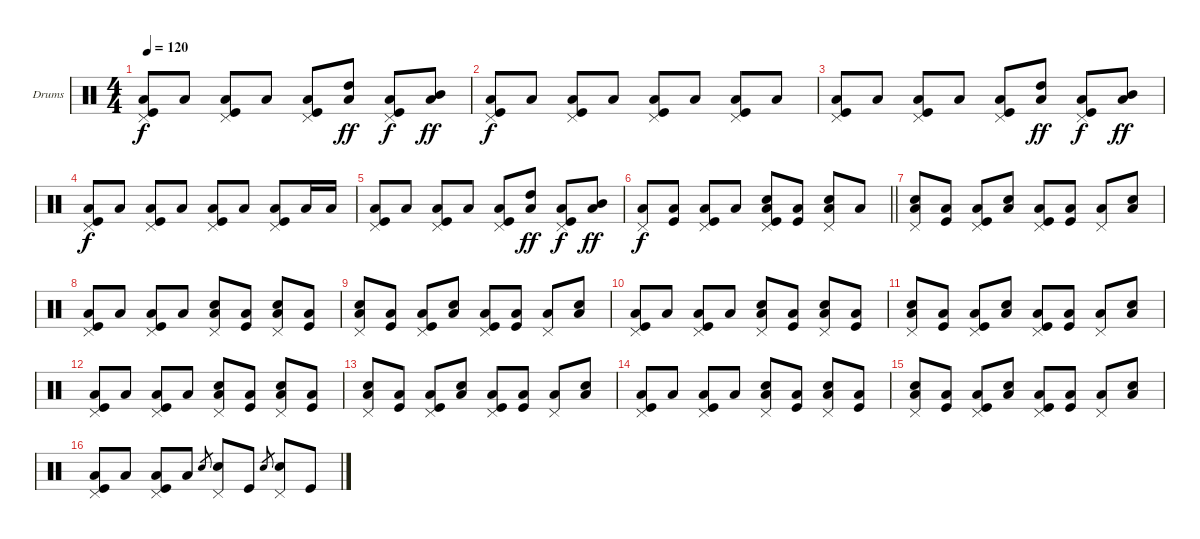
\bracketExtendMode groupsimilarinstruments
\firstSystemTrackNameOrientation horizontal
\otherSystemsTrackNameOrientation horizontal
\track ("Drums" "Drums") {instrument percussion}
\staff {score}
\articulation defaults
\ts (4 4)
\tempo 120
\clef neutral
\ks c
("Kick (hit)" "Pedal Hi-Hat (hit)" "Low Tom (hit)").8{dy f} "Low Tom (hit)".8 ("Kick (hit)" "Pedal Hi-Hat (hit)" "Low Tom (hit)").8 "Low Tom (hit)".8 ("Kick (hit)" "Pedal Hi-Hat (hit)" "Low Tom (hit)").8 ("Low Tom (hit)" "High Tom (hit)").8{dy ff} ("Kick (hit)" "Pedal Hi-Hat (hit)" "Low Tom (hit)").8{dy f} ("Low Tom (hit)" "Mid Tom (hit)").8{dy ff} |
("Kick (hit)" "Pedal Hi-Hat (hit)" "Low Tom (hit)").8{dy f} "Low Tom (hit)".8 ("Kick (hit)" "Pedal Hi-Hat (hit)" "Low Tom (hit)").8 "Low Tom (hit)".8 ("Kick (hit)" "Pedal Hi-Hat (hit)" "Low Tom (hit)").8 "Low Tom (hit)".8 ("Kick (hit)" "Pedal Hi-Hat (hit)" "Low Tom (hit)").8 "Low Tom (hit)".8 |
("Kick (hit)" "Pedal Hi-Hat (hit)" "Low Tom (hit)").8 "Low Tom (hit)".8 ("Kick (hit)" "Pedal Hi-Hat (hit)" "Low Tom (hit)").8 "Low Tom (hit)".8 ("Kick (hit)" "Pedal Hi-Hat (hit)" "Low Tom (hit)").8 ("Low Tom (hit)" "High Tom (hit)").8{dy ff} ("Kick (hit)" "Pedal Hi-Hat (hit)" "Low Tom (hit)").8{dy f} ("Low Tom (hit)" "Mid Tom (hit)").8{dy ff} |
("Kick (hit)" "Pedal Hi-Hat (hit)" "Low Tom (hit)").8{dy f} "Low Tom (hit)".8 ("Kick (hit)" "Pedal Hi-Hat (hit)" "Low Tom (hit)").8 "Low Tom (hit)".8 ("Kick (hit)" "Pedal Hi-Hat (hit)" "Low Tom (hit)").8 "Low Tom (hit)".8 ("Kick (hit)" "Pedal Hi-Hat (hit)" "Low Tom (hit)").8 "Low Tom (hit)".16 "Low Tom (hit)".16 |
("Kick (hit)" "Pedal Hi-Hat (hit)" "Low Tom (hit)").8 "Low Tom (hit)".8 ("Kick (hit)" "Pedal Hi-Hat (hit)" "Low Tom (hit)").8 "Low Tom (hit)".8 ("Kick (hit)" "Pedal Hi-Hat (hit)" "Low Tom (hit)").8 ("Low Tom (hit)" "High Tom (hit)").8{dy ff} ("Kick (hit)" "Pedal Hi-Hat (hit)" "Low Tom (hit)").8{dy f} ("Low Tom (hit)" "Mid Tom (hit)").8{dy ff} |
\barLineRight lightlight
("Low Tom (hit)" "Pedal Hi-Hat (hit)").8{dy f} ("Kick (hit)" "Low Tom (hit)").8 ("Kick (hit)" "Low Tom (hit)" "Pedal Hi-Hat (hit)").8 "Low Tom (hit)".8 ("Kick (hit)" "Low Tom (hit)" "Pedal Hi-Hat (hit)" "Snare (hit) 2").8 ("Kick (hit)" "Low Tom (hit)").8 ("Low Tom (hit)" "Pedal Hi-Hat (hit)" "Snare (hit) 2").8 "Low Tom (hit)".8 |
("Low Tom (hit)" "Snare (hit) 2" "Pedal Hi-Hat (hit)").8 ("Kick (hit)" "Low Tom (hit)").8 ("Kick (hit)" "Low Tom (hit)" "Pedal Hi-Hat (hit)").8 ("Low Tom (hit)" "Snare (hit) 2").8 ("Kick (hit)" "Low Tom (hit)" "Pedal Hi-Hat (hit)").8 ("Kick (hit)" "Low Tom (hit)").8 ("Low Tom (hit)" "Pedal Hi-Hat (hit)").8 ("Low Tom (hit)" "Snare (hit) 2").8 |
("Low Tom (hit)" "Kick (hit)" "Pedal Hi-Hat (hit)").8 "Low Tom (hit)".8 ("Kick (hit)" "Low Tom (hit)" "Pedal Hi-Hat (hit)").8 "Low Tom (hit)".8 ("Low Tom (hit)" "Snare (hit) 2" "Pedal Hi-Hat (hit)").8 ("Low Tom (hit)" "Kick (hit)").8 ("Low Tom (hit)" "Snare (hit) 2" "Pedal Hi-Hat (hit)").8 ("Low Tom (hit)" "Kick (hit)").8 |
("Low Tom (hit)" "Snare (hit) 2" "Pedal Hi-Hat (hit)").8 ("Kick (hit)" "Low Tom (hit)").8 ("Kick (hit)" "Low Tom (hit)" "Pedal Hi-Hat (hit)").8 ("Low Tom (hit)" "Snare (hit) 2").8 ("Kick (hit)" "Low Tom (hit)" "Pedal Hi-Hat (hit)").8 ("Kick (hit)" "Low Tom (hit)").8 ("Low Tom (hit)" "Pedal Hi-Hat (hit)").8 ("Low Tom (hit)" "Snare (hit) 2").8 |
("Low Tom (hit)" "Kick (hit)" "Pedal Hi-Hat (hit)").8 "Low Tom (hit)".8 ("Kick (hit)" "Low Tom (hit)" "Pedal Hi-Hat (hit)").8 "Low Tom (hit)".8 ("Low Tom (hit)" "Snare (hit) 2" "Pedal Hi-Hat (hit)").8 ("Low Tom (hit)" "Kick (hit)").8 ("Low Tom (hit)" "Snare (hit) 2" "Pedal Hi-Hat (hit)").8 ("Low Tom (hit)" "Kick (hit)").8 |
("Low Tom (hit)" "Snare (hit) 2" "Pedal Hi-Hat (hit)").8 ("Kick (hit)" "Low Tom (hit)").8 ("Kick (hit)" "Low Tom (hit)" "Pedal Hi-Hat (hit)").8 ("Low Tom (hit)" "Snare (hit) 2").8 ("Kick (hit)" "Low Tom (hit)" "Pedal Hi-Hat (hit)").8 ("Kick (hit)" "Low Tom (hit)").8 ("Low Tom (hit)" "Pedal Hi-Hat (hit)").8 ("Low Tom (hit)" "Snare (hit) 2").8 |
("Low Tom (hit)" "Kick (hit)" "Pedal Hi-Hat (hit)").8 "Low Tom (hit)".8 ("Kick (hit)" "Low Tom (hit)" "Pedal Hi-Hat (hit)").8 "Low Tom (hit)".8 ("Low Tom (hit)" "Snare (hit) 2" "Pedal Hi-Hat (hit)").8 ("Low Tom (hit)" "Kick (hit)").8 ("Low Tom (hit)" "Snare (hit) 2" "Pedal Hi-Hat (hit)").8 ("Low Tom (hit)" "Kick (hit)").8 |
("Low Tom (hit)" "Snare (hit) 2" "Pedal Hi-Hat (hit)").8 ("Kick (hit)" "Low Tom (hit)").8 ("Kick (hit)" "Low Tom (hit)" "Pedal Hi-Hat (hit)").8 ("Low Tom (hit)" "Snare (hit) 2").8 ("Kick (hit)" "Low Tom (hit)" "Pedal Hi-Hat (hit)").8 ("Kick (hit)" "Low Tom (hit)").8 ("Low Tom (hit)" "Pedal Hi-Hat (hit)").8 ("Low Tom (hit)" "Snare (hit) 2").8 |
("Low Tom (hit)" "Kick (hit)" "Pedal Hi-Hat (hit)").8 "Low Tom (hit)".8 ("Kick (hit)" "Low Tom (hit)" "Pedal Hi-Hat (hit)").8 "Low Tom (hit)".8 ("Low Tom (hit)" "Snare (hit) 2" "Pedal Hi-Hat (hit)").8 ("Low Tom (hit)" "Kick (hit)").8 ("Low Tom (hit)" "Snare (hit) 2" "Pedal Hi-Hat (hit)").8 ("Low Tom (hit)" "Kick (hit)").8 |
("Low Tom (hit)" "Snare (hit) 2" "Pedal Hi-Hat (hit)").8 ("Kick (hit)" "Low Tom (hit)").8 ("Kick (hit)" "Low Tom (hit)" "Pedal Hi-Hat (hit)").8 ("Low Tom (hit)" "Snare (hit) 2").8 ("Kick (hit)" "Low Tom (hit)" "Pedal Hi-Hat (hit)").8 ("Kick (hit)" "Low Tom (hit)").8 ("Low Tom (hit)" "Pedal Hi-Hat (hit)").8 ("Low Tom (hit)" "Snare (hit) 2").8 |
("Low Tom (hit)" "Kick (hit)" "Pedal Hi-Hat (hit)").8 "Low Tom (hit)".8 ("Low Tom (hit)" "Kick (hit)" "Pedal Hi-Hat (hit)").8 "Low Tom (hit)".8 "Snare (hit) 2".8{gr} ("Snare (hit) 2" "Pedal Hi-Hat (hit)").8 "Kick (hit)".8 "Snare (hit) 2".8{gr} ("Snare (hit) 2" "Pedal Hi-Hat (hit)").8 "Kick (hit)".8
